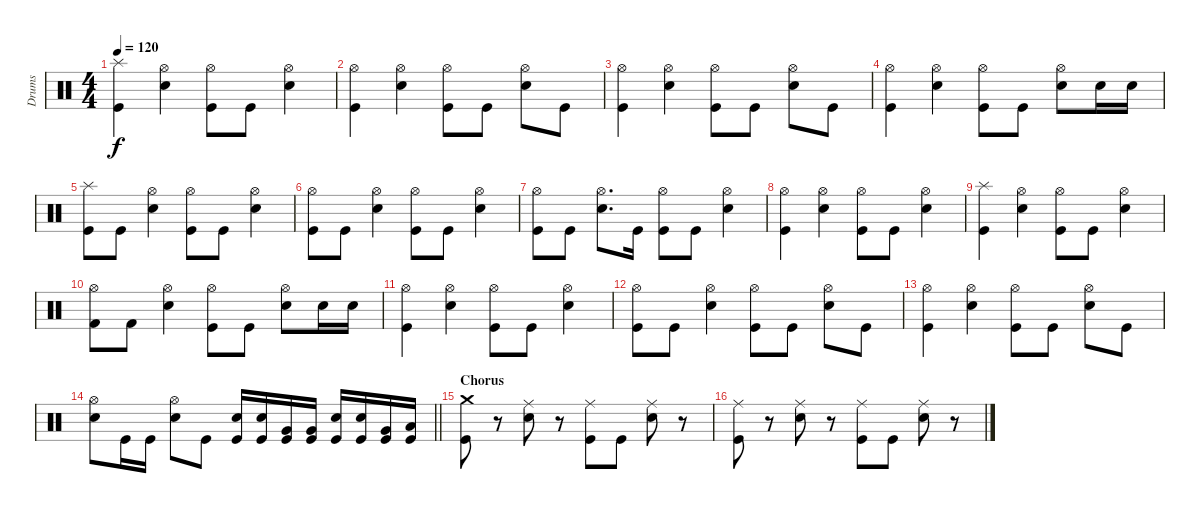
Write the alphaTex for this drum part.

\track ("Drums" "Drums") {instrument percussion}
\staff {score}
\articulation defaults
\ts (4 4)
\tempo 120
\clef neutral
\ks c
("Kick (hit)" "Splash (hit)").4{dy f} ("Snare (hit) 2" "Hi-Hat (open)").4 ("Kick (hit)" "Hi-Hat (open)").8 "Kick (hit)".8 ("Snare (hit) 2" "Hi-Hat (open)").4 |
("Kick (hit)" "Hi-Hat (open)").4 ("Snare (hit) 2" "Hi-Hat (open)").4 ("Kick (hit)" "Hi-Hat (open)").8 "Kick (hit)".8 ("Snare (hit) 2" "Hi-Hat (open)").8 "Kick (hit)".8 |
("Kick (hit)" "Hi-Hat (open)").4 ("Snare (hit) 2" "Hi-Hat (open)").4 ("Kick (hit)" "Hi-Hat (open)").8 "Kick (hit)".8 ("Snare (hit) 2" "Hi-Hat (open)").8 "Kick (hit)".8 |
("Kick (hit)" "Hi-Hat (open)").4 ("Snare (hit) 2" "Hi-Hat (open)").4 ("Kick (hit)" "Hi-Hat (open)").8 "Kick (hit)".8 ("Snare (hit) 2" "Hi-Hat (open)").8 "Snare (hit) 2".16 "Snare (hit) 2".16 |
("Kick (hit)" "Splash (hit)").8 "Kick (hit)".8 ("Hi-Hat (open)" "Snare (hit) 2").4 ("Kick (hit)" "Hi-Hat (open)").8 "Kick (hit)".8 ("Hi-Hat (open)" "Snare (hit) 2").4 |
("Kick (hit)" "Hi-Hat (open)").8 "Kick (hit)".8 ("Hi-Hat (open)" "Snare (hit) 2").4 ("Kick (hit)" "Hi-Hat (open)").8 "Kick (hit)".8 ("Hi-Hat (open)" "Snare (hit) 2").4 |
("Kick (hit)" "Hi-Hat (open)").8 "Kick (hit)".8 ("Hi-Hat (open)" "Snare (hit) 2").8{d} "Kick (hit)".16 ("Kick (hit)" "Hi-Hat (open)").8 "Kick (hit)".8 ("Hi-Hat (open)" "Snare (hit) 2").4 |
("Kick (hit)" "Hi-Hat (open)").4 ("Hi-Hat (open)" "Snare (hit) 2").4 ("Kick (hit)" "Hi-Hat (open)").8 "Kick (hit)".8 ("Hi-Hat (open)" "Snare (hit) 2").4 |
("Kick (hit)" "Splash (hit)").4 ("Snare (hit) 2" "Hi-Hat (open)").4 ("Kick (hit)" "Hi-Hat (open)").8 "Kick (hit)".8 ("Snare (hit) 2" "Hi-Hat (open)").4 |
("Kick (hit) 2" "Hi-Hat (open)").8 "Kick (hit) 2".8 ("Hi-Hat (open)" "Snare (hit) 2").4 ("Kick (hit)" "Hi-Hat (open)").8 "Kick (hit)".8 ("Hi-Hat (open)" "Snare (hit) 2").8 "Snare (hit) 2".16 "Snare (hit) 2".16 |
("Kick (hit)" "Hi-Hat (open)").4 ("Hi-Hat (open)" "Snare (hit) 2").4 ("Kick (hit)" "Hi-Hat (open)").8 "Kick (hit)".8 ("Hi-Hat (open)" "Snare (hit) 2").4 |
("Kick (hit)" "Hi-Hat (open)").8 "Kick (hit)".8 ("Hi-Hat (open)" "Snare (hit) 2").4 ("Kick (hit)" "Hi-Hat (open)").8 "Kick (hit)".8 ("Hi-Hat (open)" "Snare (hit) 2").8 "Kick (hit)".8 |
("Kick (hit)" "Hi-Hat (open)").4 ("Hi-Hat (open)" "Snare (hit) 2").4 ("Kick (hit)" "Hi-Hat (open)").8 "Kick (hit)".8 ("Hi-Hat (open)" "Snare (hit) 2").8 "Kick (hit)".8 |
\barLineRight lightlight
("Hi-Hat (open)" "Snare (hit) 2").8 "Kick (hit)".16 "Kick (hit)".16 ("Hi-Hat (open)" "Snare (hit) 2").8 "Kick (hit)".8 ("Kick (hit)" "Snare (hit) 2").16 ("Kick (hit)" "Snare (hit) 2").16 ("Kick (hit)" "Very Low Tom (hit)").16 ("Kick (hit)" "Very Low Tom (hit)").16 ("Kick (hit)" "Snare (hit) 2").16 ("Kick (hit)" "Snare (hit) 2").16 ("Kick (hit)" "Very Low Tom (hit)").16 ("Kick (hit)" "Low Floor Tom (hit)").16 |
\section ("" "Chorus")
("Kick (hit)" "Crash medium (hit)").8 r.8 ("Snare (hit) 2" "Ride (middle)").8 r.8 ("Kick (hit)" "Ride (middle)").8 "Kick (hit)".8 ("Snare (hit) 2" "Ride (middle)").8 r.8 |
("Kick (hit)" "Ride (middle)").8 r.8 ("Snare (hit) 2" "Ride (middle)").8 r.8 ("Kick (hit)" "Ride (middle)").8 "Kick (hit)".8 ("Snare (hit) 2" "Ride (middle)").8 r.8
